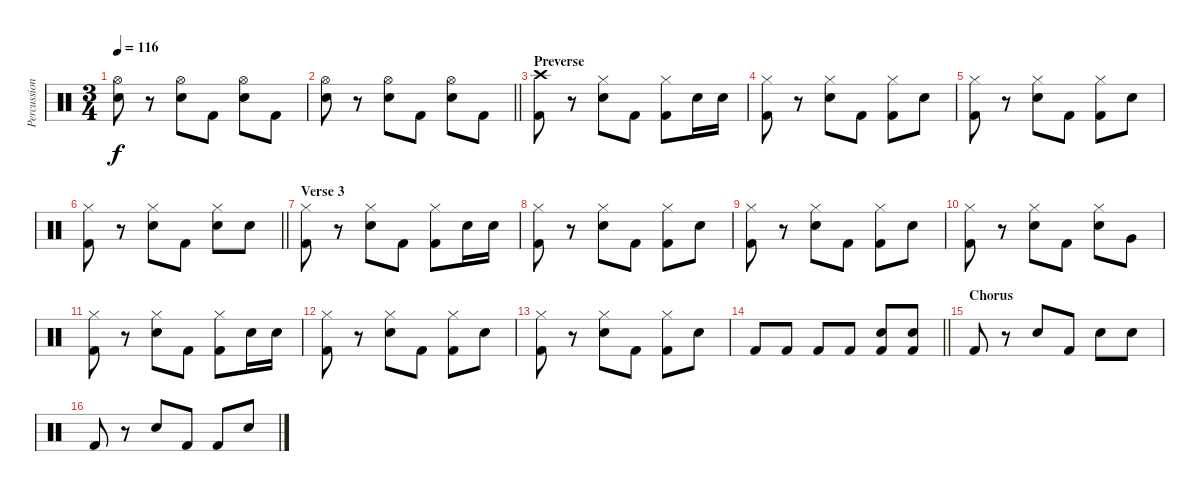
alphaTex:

\track ("Percussion" "Percussion") {instrument percussion}
\staff {score}
\articulation defaults
\ts (3 4)
\tempo 116
\clef neutral
\ks c
("Hi-Hat (open)" "Electric Snare (hit)").8{dy f} r.8 ("Hi-Hat (open)" "Electric Snare (hit)").8 "Kick (hit) 2".8 ("Hi-Hat (open)" "Electric Snare (hit)").8 "Kick (hit) 2".8 |
\barLineRight lightlight
("Hi-Hat (open)" "Electric Snare (hit)").8 r.8 ("Hi-Hat (open)" "Electric Snare (hit)").8 "Kick (hit) 2".8 ("Hi-Hat (open)" "Electric Snare (hit)").8 "Kick (hit) 2".8 |
\section ("" "Preverse")
("Crash high (hit)" "Kick (hit) 2").8{volume 14} r.8 ("Hi-Hat (closed)" "Electric Snare (hit)").8 "Kick (hit) 2".8 ("Hi-Hat (closed)" "Kick (hit) 2").8 "Electric Snare (hit)".16 "Electric Snare (hit)".16 |
("Hi-Hat (closed)" "Kick (hit) 2").8 r.8 ("Hi-Hat (closed)" "Electric Snare (hit)").8 "Kick (hit) 2".8 ("Hi-Hat (closed)" "Kick (hit) 2").8 "Electric Snare (hit)".8 |
("Hi-Hat (closed)" "Kick (hit) 2").8 r.8 ("Hi-Hat (closed)" "Electric Snare (hit)").8 "Kick (hit) 2".8 ("Hi-Hat (closed)" "Kick (hit) 2").8 "Electric Snare (hit)".8 |
\barLineRight lightlight
("Hi-Hat (closed)" "Kick (hit) 2").8 r.8 ("Hi-Hat (closed)" "Electric Snare (hit)").8 "Kick (hit) 2".8 ("Hi-Hat (closed)" "Electric Snare (hit)").8 "Electric Snare (hit)".8 |
\section ("" "Verse 3")
("Hi-Hat (closed)" "Kick (hit) 2").8 r.8 ("Hi-Hat (closed)" "Electric Snare (hit)").8 "Kick (hit) 2".8 ("Hi-Hat (closed)" "Kick (hit) 2").8 "Electric Snare (hit)".16 "Electric Snare (hit)".16 |
("Hi-Hat (closed)" "Kick (hit) 2").8 r.8 ("Hi-Hat (closed)" "Electric Snare (hit)").8 "Kick (hit) 2".8 ("Hi-Hat (closed)" "Kick (hit) 2").8 "Electric Snare (hit)".8 |
("Hi-Hat (closed)" "Kick (hit) 2").8 r.8 ("Hi-Hat (closed)" "Electric Snare (hit)").8 "Kick (hit) 2".8 ("Hi-Hat (closed)" "Kick (hit) 2").8 "Electric Snare (hit)".8 |
("Hi-Hat (closed)" "Kick (hit) 2").8 r.8 ("Hi-Hat (closed)" "Electric Snare (hit)").8 "Kick (hit) 2".8 ("Hi-Hat (closed)" "Electric Snare (hit)").8 "Very Low Tom (hit)".8 |
("Hi-Hat (closed)" "Kick (hit) 2").8 r.8 ("Hi-Hat (closed)" "Electric Snare (hit)").8 "Kick (hit) 2".8 ("Hi-Hat (closed)" "Kick (hit) 2").8 "Electric Snare (hit)".16 "Electric Snare (hit)".16 |
("Hi-Hat (closed)" "Kick (hit) 2").8 r.8 ("Hi-Hat (closed)" "Electric Snare (hit)").8 "Kick (hit) 2".8 ("Hi-Hat (closed)" "Kick (hit) 2").8 "Electric Snare (hit)".8 |
("Hi-Hat (closed)" "Kick (hit) 2").8 r.8 ("Hi-Hat (closed)" "Electric Snare (hit)").8 "Kick (hit) 2".8 ("Hi-Hat (closed)" "Kick (hit) 2").8 "Electric Snare (hit)".8 |
\barLineRight lightlight "Kick (hit) 2".8 "Kick (hit) 2".8 "Kick (hit) 2".8 "Kick (hit) 2".8
("Electric Snare (hit)" "Kick (hit) 2").8 ("Electric Snare (hit)" "Kick (hit) 2").8 |
\section ("" "Chorus")
"Kick (hit) 2".8 r.8 "Electric Snare (hit)".8 "Kick (hit) 2".8 "Electric Snare (hit)".8 "Electric Snare (hit)".8 |
"Kick (hit) 2".8 r.8 "Electric Snare (hit)".8 "Kick (hit) 2".8 "Kick (hit) 2".8 "Electric Snare (hit)".8
